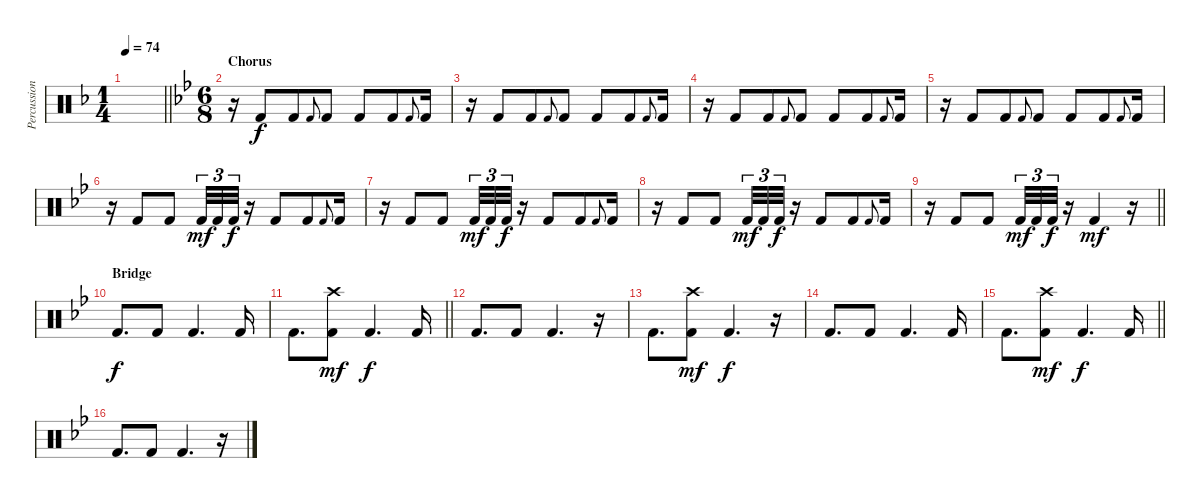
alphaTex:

\track ("Percussion" "Percussion") {instrument percussion}
\staff {score}
\articulation defaults
\ts (1 4)
\tempo 74
\clef neutral
\barLineRight lightlight
\ks f
|
\ts (6 8)
\section ("" "Chorus")
\ks bb
r.16 "Kick (hit) 2".8 "Kick (hit) 2".8 "Kick (hit) 2".8{gr onbeat} "Kick (hit) 2".8 "Kick (hit) 2".8 "Kick (hit) 2".8 "Kick (hit) 2".8{gr onbeat} "Kick (hit) 2".16 |
r.16 "Kick (hit) 2".8 "Kick (hit) 2".8 "Kick (hit) 2".8{gr onbeat} "Kick (hit) 2".8 "Kick (hit) 2".8 "Kick (hit) 2".8 "Kick (hit) 2".8{gr onbeat} "Kick (hit) 2".16 |
r.16 "Kick (hit) 2".8 "Kick (hit) 2".8 "Kick (hit) 2".8{gr onbeat} "Kick (hit) 2".8 "Kick (hit) 2".8 "Kick (hit) 2".8 "Kick (hit) 2".8{gr onbeat} "Kick (hit) 2".16 |
r.16 "Kick (hit) 2".8 "Kick (hit) 2".8 "Kick (hit) 2".8{gr onbeat} "Kick (hit) 2".8 "Kick (hit) 2".8 "Kick (hit) 2".8 "Kick (hit) 2".8{gr onbeat} "Kick (hit) 2".16 |
r.16 "Kick (hit) 2".8 "Kick (hit) 2".8 "Kick (hit) 2".32{tu (3 2) dy mf} "Kick (hit) 2".32{tu (3 2)} "Kick (hit) 2".32{tu (3 2) dy f} r.16 "Kick (hit) 2".8 "Kick (hit) 2".8 "Kick (hit) 2".8{gr onbeat} "Kick (hit) 2".16 |
r.16 "Kick (hit) 2".8 "Kick (hit) 2".8 "Kick (hit) 2".32{tu (3 2) dy mf} "Kick (hit) 2".32{tu (3 2)} "Kick (hit) 2".32{tu (3 2) dy f} r.16 "Kick (hit) 2".8 "Kick (hit) 2".8 "Kick (hit) 2".8{gr onbeat} "Kick (hit) 2".16 |
r.16 "Kick (hit) 2".8 "Kick (hit) 2".8 "Kick (hit) 2".32{tu (3 2) dy mf} "Kick (hit) 2".32{tu (3 2)} "Kick (hit) 2".32{tu (3 2) dy f} r.16 "Kick (hit) 2".8 "Kick (hit) 2".8 "Kick (hit) 2".8{gr onbeat} "Kick (hit) 2".16 |
\barLineRight lightlight
r.16 "Kick (hit) 2".8 "Kick (hit) 2".8 "Kick (hit) 2".32{tu (3 2) dy mf} "Kick (hit) 2".32{tu (3 2)} "Kick (hit) 2".32{tu (3 2) dy f} r.16 "Kick (hit) 2".4{dy mf} r.16 |
\section ("" "Bridge")
"Kick (hit) 2".8{d dy f} "Kick (hit) 2".8 "Kick (hit) 2".4{d} "Kick (hit) 2".16 |
\barLineRight lightlight "Kick (hit) 2".8{d}
("Crash high (hit)" "Kick (hit) 2").8{dy mf} "Kick (hit) 2".4{d dy f} "Kick (hit) 2".16 |
"Kick (hit) 2".8{d} "Kick (hit) 2".8 "Kick (hit) 2".4{d} r.16 |
"Kick (hit) 2".8{d} ("Crash high (hit)" "Kick (hit) 2").8{dy mf} "Kick (hit) 2".4{d dy f} r.16 |
"Kick (hit) 2".8{d} "Kick (hit) 2".8 "Kick (hit) 2".4{d} "Kick (hit) 2".16 |
\barLineRight lightlight "Kick (hit) 2".8{d}
("Crash high (hit)" "Kick (hit) 2").8{dy mf} "Kick (hit) 2".4{d dy f} "Kick (hit) 2".16 |
"Kick (hit) 2".8{d} "Kick (hit) 2".8 "Kick (hit) 2".4{d} r.16
